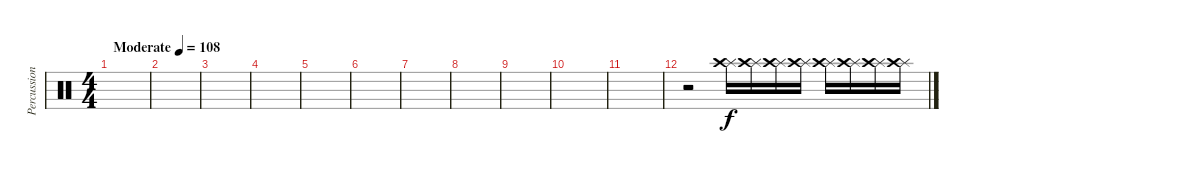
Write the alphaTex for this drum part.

\track ("Percussion" "Percussion") {instrument percussion}
\staff {score}
\articulation defaults
\ts (4 4)
\tempo (108 "Moderate")
\clef neutral
\ks c
|
|
|
|
|
|
|
|
|
|
|
r.2 ("Splash (hit)" "Crash high (hit)").16 ("Splash (hit)" "Crash high (hit)").16 ("Splash (hit)" "Crash high (hit)").16 ("Splash (hit)" "Crash high (hit)").16 ("Splash (hit)" "Crash high (hit)").16 ("Splash (hit)" "Crash high (hit)").16 ("Splash (hit)" "Crash high (hit)").16 ("Splash (hit)" "Crash high (hit)").16
